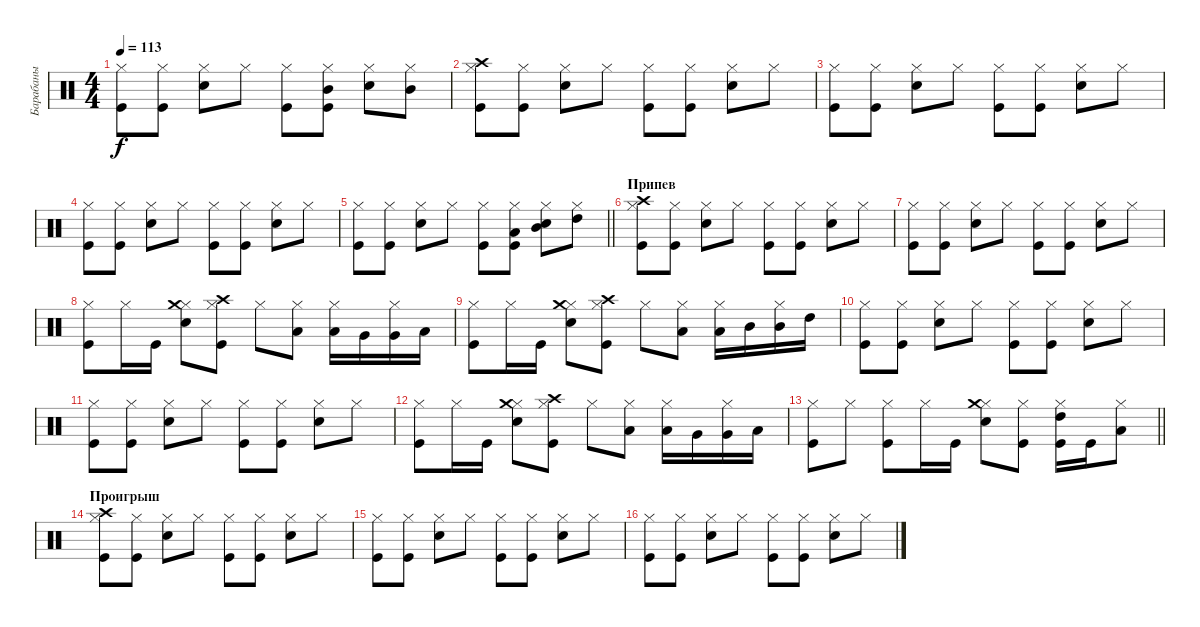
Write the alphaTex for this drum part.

\track ("Барабаны" "Барабаны") {instrument percussion}
\staff {score}
\articulation defaults
\ts (4 4)
\tempo 113
\clef neutral
\ks c
("Kick (hit)" "Hi-Hat (closed)").8{dy f} ("Kick (hit)" "Hi-Hat (closed)").8 ("Snare (hit) 2" "Hi-Hat (closed)").8 "Hi-Hat (closed)".8 ("Kick (hit)" "Hi-Hat (closed)").8 ("Kick (hit)" "Hi-Hat (closed)" "Mid Tom (hit)").8 ("Snare (hit) 2" "Hi-Hat (closed)").8 ("Hi-Hat (closed)" "Mid Tom (hit)").8 |
("Kick (hit)" "Hi-Hat (closed)" "Crash high (hit)").8 ("Kick (hit)" "Hi-Hat (closed)").8 ("Snare (hit) 2" "Hi-Hat (closed)").8 "Hi-Hat (closed)".8 ("Kick (hit)" "Hi-Hat (closed)").8 ("Kick (hit)" "Hi-Hat (closed)").8 ("Snare (hit) 2" "Hi-Hat (closed)").8 "Hi-Hat (closed)".8 |
("Kick (hit)" "Hi-Hat (closed)").8 ("Kick (hit)" "Hi-Hat (closed)").8 ("Snare (hit) 2" "Hi-Hat (closed)").8 "Hi-Hat (closed)".8 ("Kick (hit)" "Hi-Hat (closed)").8 ("Kick (hit)" "Hi-Hat (closed)").8 ("Snare (hit) 2" "Hi-Hat (closed)").8 "Hi-Hat (closed)".8 |
("Kick (hit)" "Hi-Hat (closed)").8 ("Kick (hit)" "Hi-Hat (closed)").8 ("Snare (hit) 2" "Hi-Hat (closed)").8 "Hi-Hat (closed)".8 ("Kick (hit)" "Hi-Hat (closed)").8 ("Kick (hit)" "Hi-Hat (closed)").8 ("Snare (hit) 2" "Hi-Hat (closed)").8 "Hi-Hat (closed)".8 |
\barLineRight lightlight
("Kick (hit)" "Hi-Hat (closed)").8 ("Kick (hit)" "Hi-Hat (closed)").8 ("Snare (hit) 2" "Hi-Hat (closed)").8 "Hi-Hat (closed)".8 ("Kick (hit)" "Hi-Hat (closed)").8 ("Kick (hit)" "Hi-Hat (closed)" "Low Tom (hit)").8 ("Snare (hit) 2" "Hi-Hat (closed)" "Mid Tom (hit)").8 ("Hi-Hat (closed)" "High Tom (hit)").8 |
\section ("" "Припев")
("Kick (hit)" "Hi-Hat (closed)" "Crash high (hit)").8 ("Kick (hit)" "Hi-Hat (closed)").8 ("Snare (hit) 2" "Hi-Hat (closed)").8 "Hi-Hat (closed)".8 ("Kick (hit)" "Hi-Hat (closed)").8 ("Kick (hit)" "Hi-Hat (closed)").8 ("Snare (hit) 2" "Hi-Hat (closed)").8 "Hi-Hat (closed)".8 |
("Kick (hit)" "Hi-Hat (closed)").8 ("Kick (hit)" "Hi-Hat (closed)").8 ("Snare (hit) 2" "Hi-Hat (closed)").8 "Hi-Hat (closed)".8 ("Kick (hit)" "Hi-Hat (closed)").8 ("Kick (hit)" "Hi-Hat (closed)").8 ("Snare (hit) 2" "Hi-Hat (closed)").8 "Hi-Hat (closed)".8 |
("Kick (hit)" "Hi-Hat (closed)").8 "Hi-Hat (closed)".16 "Kick (hit)".16 ("Snare (hit) 2" "Hi-Hat (closed)" "Crash medium (hit)").8 ("Kick (hit)" "Hi-Hat (closed)" "Crash high (hit)").8 "Hi-Hat (closed)".8 ("Hi-Hat (closed)" "Low Floor Tom (hit)").8 ("Hi-Hat (closed)" "Low Floor Tom (hit)").16 "Very Low Tom (hit)".16 ("Hi-Hat (closed)" "Very Low Tom (hit)").16 "Low Tom (hit)".16 |
("Kick (hit)" "Hi-Hat (closed)").8 "Hi-Hat (closed)".16 "Kick (hit)".16 ("Snare (hit) 2" "Hi-Hat (closed)" "Crash medium (hit)").8 ("Kick (hit)" "Hi-Hat (closed)" "Crash high (hit)").8 "Hi-Hat (closed)".8 ("Hi-Hat (closed)" "Low Tom (hit)").8 ("Hi-Hat (closed)" "Low Tom (hit)").16 "Mid Tom (hit)".16 ("Hi-Hat (closed)" "Mid Tom (hit)").16 "High Tom (hit)".16 |
("Kick (hit)" "Hi-Hat (closed)").8 ("Kick (hit)" "Hi-Hat (closed)").8 ("Snare (hit) 2" "Hi-Hat (closed)").8 "Hi-Hat (closed)".8 ("Kick (hit)" "Hi-Hat (closed)").8 ("Kick (hit)" "Hi-Hat (closed)").8 ("Snare (hit) 2" "Hi-Hat (closed)").8 "Hi-Hat (closed)".8 |
("Kick (hit)" "Hi-Hat (closed)").8 ("Kick (hit)" "Hi-Hat (closed)").8 ("Snare (hit) 2" "Hi-Hat (closed)").8 "Hi-Hat (closed)".8 ("Kick (hit)" "Hi-Hat (closed)").8 ("Kick (hit)" "Hi-Hat (closed)").8 ("Snare (hit) 2" "Hi-Hat (closed)").8 "Hi-Hat (closed)".8 |
("Kick (hit)" "Hi-Hat (closed)").8 "Hi-Hat (closed)".16 "Kick (hit)".16 ("Snare (hit) 2" "Hi-Hat (closed)" "Crash medium (hit)").8 ("Kick (hit)" "Hi-Hat (closed)" "Crash high (hit)").8 "Hi-Hat (closed)".8 ("Hi-Hat (closed)" "Low Floor Tom (hit)").8 ("Hi-Hat (closed)" "Low Floor Tom (hit)").16 "Very Low Tom (hit)".16 ("Hi-Hat (closed)" "Very Low Tom (hit)").16 "Low Tom (hit)".16 |
\barLineRight lightlight
("Kick (hit)" "Hi-Hat (closed)").8 "Hi-Hat (closed)".8 ("Kick (hit)" "Hi-Hat (closed)").8 "Hi-Hat (closed)".16 "Kick (hit)".16 ("Snare (hit) 2" "Hi-Hat (closed)" "Crash medium (hit)").8 ("Kick (hit)" "Hi-Hat (closed)").8 ("Kick (hit)" "Hi-Hat (closed)" "High Tom (hit)").16 "Kick (hit)".16 ("Hi-Hat (closed)" "Low Floor Tom (hit)").8 |
\section ("" "Проигрыш")
("Kick (hit)" "Hi-Hat (closed)" "Crash high (hit)").8 ("Kick (hit)" "Hi-Hat (closed)").8 ("Snare (hit) 2" "Hi-Hat (closed)").8 "Hi-Hat (closed)".8 ("Kick (hit)" "Hi-Hat (closed)").8 ("Kick (hit)" "Hi-Hat (closed)").8 ("Snare (hit) 2" "Hi-Hat (closed)").8 "Hi-Hat (closed)".8 |
("Kick (hit)" "Hi-Hat (closed)").8 ("Kick (hit)" "Hi-Hat (closed)").8 ("Snare (hit) 2" "Hi-Hat (closed)").8 "Hi-Hat (closed)".8 ("Kick (hit)" "Hi-Hat (closed)").8 ("Kick (hit)" "Hi-Hat (closed)").8 ("Snare (hit) 2" "Hi-Hat (closed)").8 "Hi-Hat (closed)".8 |
("Kick (hit)" "Hi-Hat (closed)").8 ("Kick (hit)" "Hi-Hat (closed)").8 ("Snare (hit) 2" "Hi-Hat (closed)").8 "Hi-Hat (closed)".8 ("Kick (hit)" "Hi-Hat (closed)").8 ("Kick (hit)" "Hi-Hat (closed)").8 ("Snare (hit) 2" "Hi-Hat (closed)").8 "Hi-Hat (closed)".8
